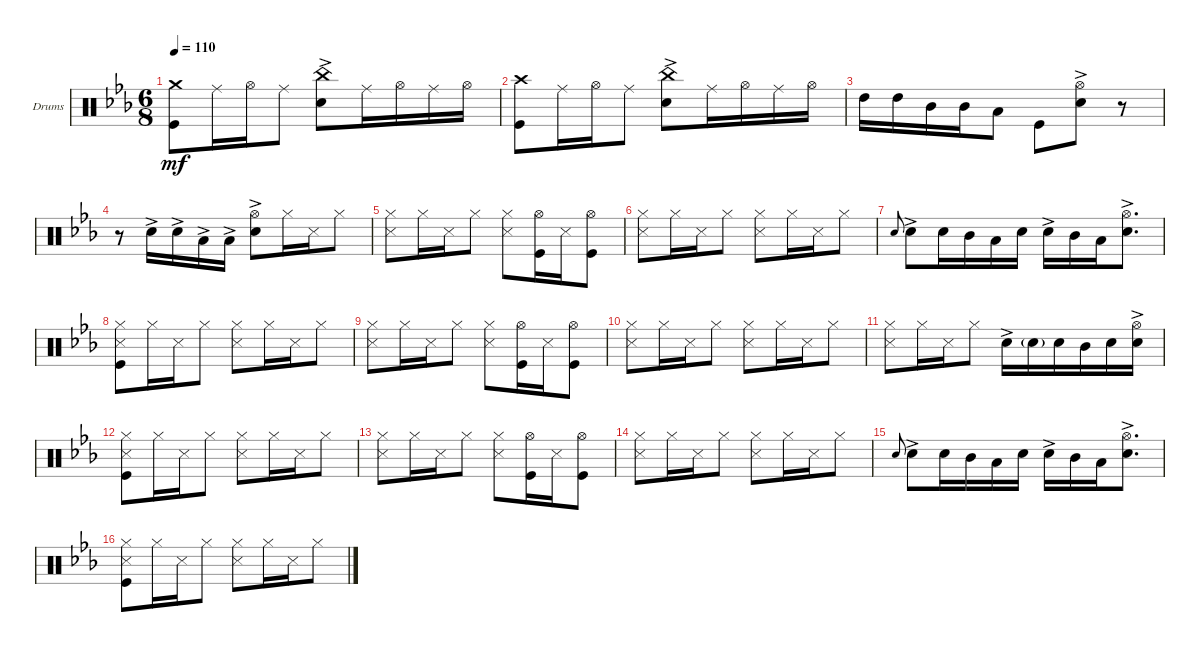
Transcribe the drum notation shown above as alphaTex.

\bracketExtendMode groupsimilarinstruments
\firstSystemTrackNameOrientation horizontal
\otherSystemsTrackNameOrientation horizontal
\track ("Drumkit" "Drums") {instrument percussion}
\staff {score}
\articulation defaults
\ts (6 8)
\tempo 110
\clef neutral
\ks cminor
("Kick (hit)" "Crash medium (hit)").8{dy mf} "Ride (middle)".16 "Hi-Hat (open)".16 "Ride (middle)".8 ("Snare (hit) 2"{ac} "China (hit)").8 "Ride (middle)".16 "Hi-Hat (open)".16 "Ride (middle)".16 "Hi-Hat (open)".16 |
("Crash high (hit)" "Kick (hit)").8 "Ride (middle)".16 "Hi-Hat (open)".16 "Ride (middle)".8 ("Snare (hit) 2"{ac} "China (hit)").8 "Ride (middle)".16 "Hi-Hat (open)".16 "Ride (middle)".16 "Hi-Hat (open)".16 |
"High Tom (hit)".16 "High Tom (hit)".16 "Mid Tom (hit)".16 "Mid Tom (hit)".16 "Low Tom (hit)".8 "Kick (hit)".8 ("Snare (hit) 2"{ac} "Hi-Hat (open)").8 r.8 |
r.8 "Snare (hit) 2"{ac}.16 "Snare (hit) 2"{ac}.16 "Low Tom (hit)"{ac}.16 "Low Tom (hit)"{ac}.16 ("Hi-Hat (open)" "Snare (hit) 2"{ac}).8 "Hi-Hat (closed)".16 "Snare (side stick) 3".16 "Hi-Hat (closed)".8 |
("Snare (side stick) 3" "Hi-Hat (closed)").8 "Hi-Hat (closed)".16 "Snare (side stick) 3".16 "Hi-Hat (closed)".8 ("Snare (side stick) 3" "Hi-Hat (closed)").8 ("Hi-Hat (open)" "Kick (hit)").16 "Snare (side stick) 3".16 ("Hi-Hat (open)" "Kick (hit)").8 |
("Snare (side stick) 3" "Hi-Hat (closed)").8 "Hi-Hat (closed)".16 "Snare (side stick) 3".16 "Hi-Hat (closed)".8 ("Snare (side stick) 3" "Hi-Hat (closed)").8 "Hi-Hat (closed)".16 "Snare (side stick) 3".16 "Hi-Hat (closed)".8 |
"Snare (hit) 2".8{gr onbeat} "Snare (hit) 2"{ac}.8 "Snare (hit) 2".16 "Mid Tom (hit)".16 "Low Tom (hit)".16 "Snare (hit) 2".16 "Snare (hit) 2"{ac}.16 "Mid Tom (hit)".16 "Low Tom (hit)".16 ("Snare (hit) 2"{ac} "Hi-Hat (open)").8{d} |
("Kick (hit)" "Snare (side stick) 3" "Hi-Hat (closed)").8 "Hi-Hat (closed)".16 "Snare (side stick) 3".16 "Hi-Hat (closed)".8 ("Snare (side stick) 3" "Hi-Hat (closed)").8 "Hi-Hat (closed)".16 "Snare (side stick) 3".16 "Hi-Hat (closed)".8 |
("Snare (side stick) 3" "Hi-Hat (closed)").8 "Hi-Hat (closed)".16 "Snare (side stick) 3".16 "Hi-Hat (closed)".8 ("Snare (side stick) 3" "Hi-Hat (closed)").8 ("Hi-Hat (open)" "Kick (hit)").16 "Snare (side stick) 3".16 ("Hi-Hat (open)" "Kick (hit)").8 |
("Snare (side stick) 3" "Hi-Hat (closed)").8 "Hi-Hat (closed)".16 "Snare (side stick) 3".16 "Hi-Hat (closed)".8 ("Snare (side stick) 3" "Hi-Hat (closed)").8 "Hi-Hat (closed)".16 "Snare (side stick) 3".16 "Hi-Hat (closed)".8 |
("Snare (side stick) 3" "Hi-Hat (closed)").8 "Hi-Hat (closed)".16 "Snare (side stick) 3".16 "Hi-Hat (closed)".8 "Snare (hit) 2"{ac}.16 "Snare (hit) 2"{g}.16 "Snare (hit) 2".16 "Mid Tom (hit)".16 "Snare (hit) 2".16 ("Snare (hit) 2"{ac} "Hi-Hat (open)").16 |
("Kick (hit)" "Snare (side stick) 3" "Hi-Hat (closed)").8 "Hi-Hat (closed)".16 "Snare (side stick) 3".16 "Hi-Hat (closed)".8 ("Snare (side stick) 3" "Hi-Hat (closed)").8 "Hi-Hat (closed)".16 "Snare (side stick) 3".16 "Hi-Hat (closed)".8 |
("Snare (side stick) 3" "Hi-Hat (closed)").8 "Hi-Hat (closed)".16 "Snare (side stick) 3".16 "Hi-Hat (closed)".8 ("Snare (side stick) 3" "Hi-Hat (closed)").8 ("Hi-Hat (open)" "Kick (hit)").16 "Snare (side stick) 3".16 ("Hi-Hat (open)" "Kick (hit)").8 |
("Snare (side stick) 3" "Hi-Hat (closed)").8 "Hi-Hat (closed)".16 "Snare (side stick) 3".16 "Hi-Hat (closed)".8 ("Snare (side stick) 3" "Hi-Hat (closed)").8 "Hi-Hat (closed)".16 "Snare (side stick) 3".16 "Hi-Hat (closed)".8 |
"Snare (hit) 2".8{gr onbeat} "Snare (hit) 2"{ac}.8 "Snare (hit) 2".16 "Mid Tom (hit)".16 "Low Tom (hit)".16 "Snare (hit) 2".16 "Snare (hit) 2"{ac}.16 "Mid Tom (hit)".16 "Low Tom (hit)".16 ("Snare (hit) 2"{ac} "Hi-Hat (open)").8{d} |
("Kick (hit)" "Snare (side stick) 3" "Hi-Hat (closed)").8 "Hi-Hat (closed)".16 "Snare (side stick) 3".16 "Hi-Hat (closed)".8 ("Snare (side stick) 3" "Hi-Hat (closed)").8 "Hi-Hat (closed)".16 "Snare (side stick) 3".16 "Hi-Hat (closed)".8
